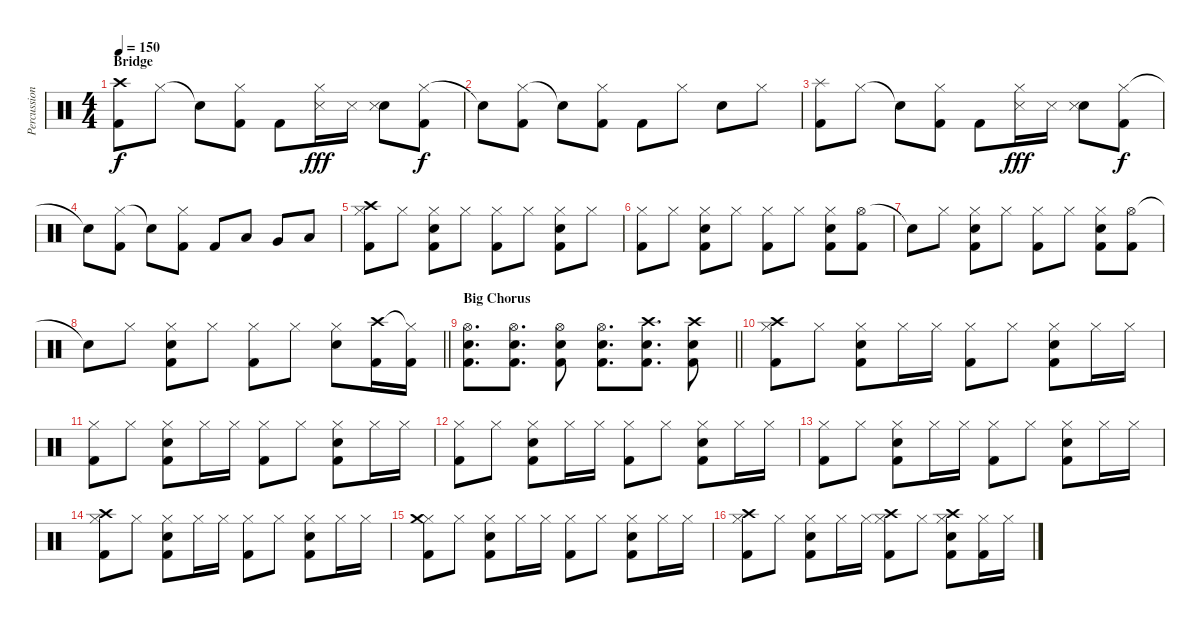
\track ("Percussion" "Percussion") {instrument percussion}
\staff {score}
\articulation defaults
\ts (4 4)
\section ("" "Bridge")
\tempo 150
\clef neutral
\ks c
("Crash high (hit)" "Kick (hit) 2").8{dy f} "Hi-Hat (closed)".8 "Snare (hit)"{t}.8 ("Hi-Hat (closed)" "Kick (hit) 2").8 "Kick (hit) 2".8 ("Hi-Hat (closed)" "Metronome (hit)").16{dy fff} "Metronome (hit)".16 ("Snare (hit) 2" "Metronome (hit)").8 ("Hi-Hat (closed)" "Kick (hit) 2").8{dy f} |
"Snare (hit)"{t}.8 ("Hi-Hat (closed)" "Kick (hit) 2").8 "Snare (hit)"{t}.8 ("Hi-Hat (closed)" "Kick (hit) 2").8 "Kick (hit) 2".8 "Hi-Hat (closed)".8 "Snare (hit) 2".8 "Hi-Hat (closed)".8 |
("Splash (hit)" "Kick (hit) 2").8 "Hi-Hat (closed)".8 "Snare (hit)"{t}.8 ("Hi-Hat (closed)" "Kick (hit) 2").8 "Kick (hit) 2".8 ("Hi-Hat (closed)" "Metronome (hit)").16{dy fff} "Metronome (hit)".16 ("Snare (hit) 2" "Metronome (hit)").8 ("Hi-Hat (closed)" "Kick (hit) 2").8{dy f} |
"Snare (hit)"{t}.8 ("Hi-Hat (closed)" "Kick (hit) 2").8 "Snare (hit)"{t}.8 ("Hi-Hat (closed)" "Kick (hit) 2").8 "Kick (hit) 2".8 "Low Tom (hit)".8 "Very Low Tom (hit)".8 "Low Floor Tom (hit)".8 |
("Hi-Hat (closed)" "Crash high (hit)" "Kick (hit) 2").8 "Hi-Hat (closed)".8 ("Hi-Hat (closed)" "Snare (hit) 2" "Kick (hit) 2").8 "Hi-Hat (closed)".8 ("Hi-Hat (closed)" "Kick (hit) 2").8 "Hi-Hat (closed)".8 ("Hi-Hat (closed)" "Snare (hit) 2" "Kick (hit) 2").8 "Hi-Hat (closed)".8 |
("Hi-Hat (closed)" "Kick (hit) 2").8 "Hi-Hat (closed)".8 ("Hi-Hat (closed)" "Snare (hit) 2" "Kick (hit) 2").8 "Hi-Hat (closed)".8 ("Hi-Hat (closed)" "Kick (hit) 2").8 "Hi-Hat (closed)".8 ("Hi-Hat (closed)" "Snare (hit) 2" "Kick (hit) 2").8 ("Hi-Hat (open)" "Kick (hit) 2").8 |
"Snare (hit)"{t}.8 "Hi-Hat (closed)".8 ("Hi-Hat (closed)" "Snare (hit) 2" "Kick (hit) 2").8 "Hi-Hat (closed)".8 ("Hi-Hat (closed)" "Kick (hit) 2").8 "Hi-Hat (closed)".8 ("Hi-Hat (closed)" "Snare (hit) 2" "Kick (hit) 2").8 ("Hi-Hat (open)" "Kick (hit) 2").8 |
\barLineRight lightlight "Snare (hit)"{t}.8 "Hi-Hat (closed)".8
("Hi-Hat (closed)" "Snare (hit) 2" "Kick (hit) 2").8 "Hi-Hat (closed)".8 ("Hi-Hat (closed)" "Kick (hit) 2").8 "Hi-Hat (closed)".8 ("Hi-Hat (closed)" "Snare (hit) 2").8 ("Crash high (hit)" "Kick (hit) 2").16 ("Hi-Hat (closed)"{t} "Kick (hit) 2").16 |
\section ("" "Big Chorus")
\barLineRight lightlight
("Hi-Hat (open)" "Snare (hit) 2" "Kick (hit) 2").8{d} ("Hi-Hat (open)" "Snare (hit) 2" "Kick (hit) 2").8{d} ("Hi-Hat (open)" "Snare (hit) 2" "Kick (hit) 2").8 ("Hi-Hat (open)" "Snare (hit) 2" "Kick (hit) 2").8{d} ("Crash high (hit)" "Snare (hit) 2" "Kick (hit) 2").8{d} ("Crash high (hit)" "Snare (hit) 2" "Kick (hit) 2").8 |
("Hi-Hat (closed)" "Crash high (hit)" "Kick (hit) 2").8 "Hi-Hat (closed)".8 ("Hi-Hat (closed)" "Snare (hit) 2" "Kick (hit) 2").8 "Hi-Hat (closed)".16 "Hi-Hat (closed)".16 ("Hi-Hat (closed)" "Kick (hit) 2").8 "Hi-Hat (closed)".8 ("Hi-Hat (closed)" "Snare (hit) 2" "Kick (hit) 2").8 "Hi-Hat (closed)".16 "Hi-Hat (closed)".16 |
("Hi-Hat (closed)" "Kick (hit) 2").8 "Hi-Hat (closed)".8 ("Hi-Hat (closed)" "Snare (hit) 2" "Kick (hit) 2").8 "Hi-Hat (closed)".16 "Hi-Hat (closed)".16 ("Hi-Hat (closed)" "Kick (hit) 2").8 "Hi-Hat (closed)".8 ("Hi-Hat (closed)" "Snare (hit) 2" "Kick (hit) 2").8 "Hi-Hat (closed)".16 "Hi-Hat (closed)".16 |
("Hi-Hat (closed)" "Kick (hit) 2").8 "Hi-Hat (closed)".8 ("Hi-Hat (closed)" "Snare (hit) 2" "Kick (hit) 2").8 "Hi-Hat (closed)".16 "Hi-Hat (closed)".16 ("Hi-Hat (closed)" "Kick (hit) 2").8 "Hi-Hat (closed)".8 ("Hi-Hat (closed)" "Snare (hit) 2" "Kick (hit) 2").8 "Hi-Hat (closed)".16 "Hi-Hat (closed)".16 |
("Hi-Hat (closed)" "Kick (hit) 2").8 "Hi-Hat (closed)".8 ("Hi-Hat (closed)" "Snare (hit) 2" "Kick (hit) 2").8 "Hi-Hat (closed)".16 "Hi-Hat (closed)".16 ("Hi-Hat (closed)" "Kick (hit) 2").8 "Hi-Hat (closed)".8 ("Hi-Hat (closed)" "Snare (hit) 2" "Kick (hit) 2").8 "Hi-Hat (closed)".16 "Hi-Hat (closed)".16 |
("Hi-Hat (closed)" "Crash high (hit)" "Kick (hit) 2").8 "Hi-Hat (closed)".8 ("Hi-Hat (closed)" "Snare (hit) 2" "Kick (hit) 2").8 "Hi-Hat (closed)".16 "Hi-Hat (closed)".16 ("Hi-Hat (closed)" "Kick (hit) 2").8 "Hi-Hat (closed)".8 ("Hi-Hat (closed)" "Snare (hit) 2" "Kick (hit) 2").8 "Hi-Hat (closed)".16 "Hi-Hat (closed)".16 |
("Hi-Hat (closed)" "Crash medium (hit)" "Kick (hit) 2").8 "Hi-Hat (closed)".8 ("Hi-Hat (closed)" "Snare (hit) 2" "Kick (hit) 2").8 "Hi-Hat (closed)".16 "Hi-Hat (closed)".16 ("Hi-Hat (closed)" "Kick (hit) 2").8 "Hi-Hat (closed)".8 ("Hi-Hat (closed)" "Snare (hit) 2" "Kick (hit) 2").8 "Hi-Hat (closed)".16 "Hi-Hat (closed)".16 |
("Hi-Hat (closed)" "Crash high (hit)" "Kick (hit) 2").8 "Hi-Hat (closed)".8 ("Hi-Hat (closed)" "Snare (hit) 2" "Kick (hit) 2").8 "Hi-Hat (closed)".16 "Hi-Hat (closed)".16 ("Hi-Hat (closed)" "Crash high (hit)" "Kick (hit) 2").8 "Hi-Hat (closed)".8 ("Hi-Hat (closed)" "Snare (hit) 2" "Crash high (hit)" "Kick (hit) 2").8 ("Hi-Hat (closed)" "Kick (hit) 2").16 "Hi-Hat (closed)".16
